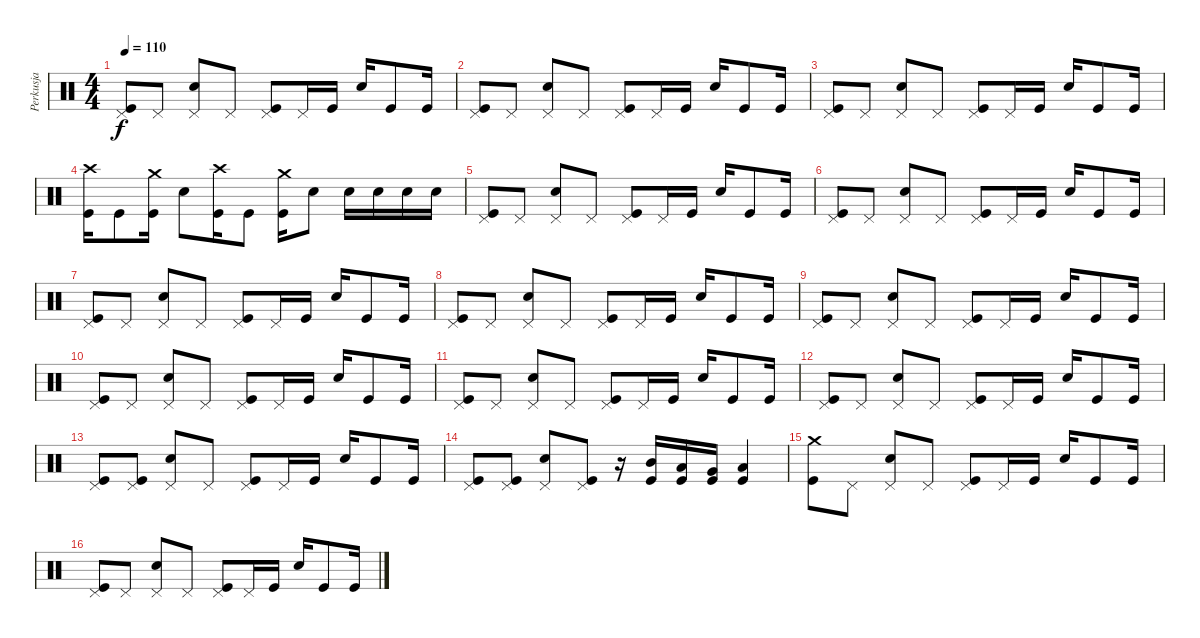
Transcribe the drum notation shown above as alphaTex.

\track ("Perkusja" "Perkusja") {instrument percussion}
\staff {score}
\articulation defaults
\ts (4 4)
\tempo 110
\clef neutral
\ks c
("Pedal Hi-Hat (hit)" "Kick (hit)").8{dy f} "Pedal Hi-Hat (hit)".8 ("Pedal Hi-Hat (hit)" "Snare (hit) 2").8 "Pedal Hi-Hat (hit)".8 ("Pedal Hi-Hat (hit)" "Kick (hit)").8 "Pedal Hi-Hat (hit)".16 "Kick (hit)".16 "Snare (hit) 2".16 "Kick (hit)".8 "Kick (hit)".16 |
("Pedal Hi-Hat (hit)" "Kick (hit)").8 "Pedal Hi-Hat (hit)".8 ("Pedal Hi-Hat (hit)" "Snare (hit) 2").8 "Pedal Hi-Hat (hit)".8 ("Pedal Hi-Hat (hit)" "Kick (hit)").8 "Pedal Hi-Hat (hit)".16 "Kick (hit)".16 "Snare (hit) 2".16 "Kick (hit)".8 "Kick (hit)".16 |
("Pedal Hi-Hat (hit)" "Kick (hit)").8 "Pedal Hi-Hat (hit)".8 ("Pedal Hi-Hat (hit)" "Snare (hit) 2").8 "Pedal Hi-Hat (hit)".8 ("Pedal Hi-Hat (hit)" "Kick (hit)").8 "Pedal Hi-Hat (hit)".16 "Kick (hit)".16 "Snare (hit) 2".16 "Kick (hit)".8 "Kick (hit)".16 |
("Crash high (hit)" "Kick (hit)").16 "Kick (hit)".8 ("Crash medium (hit)" "Kick (hit)").16 "Snare (hit) 2".8 ("Crash high (hit)" "Kick (hit)").16 "Kick (hit)".8 ("Crash medium (hit)" "Kick (hit)").16 "Snare (hit) 2".8 "Snare (hit) 2".16 "Snare (hit) 2".16 "Snare (hit) 2".16 "Snare (hit) 2".16 |
("Pedal Hi-Hat (hit)" "Kick (hit)").8 "Pedal Hi-Hat (hit)".8 ("Pedal Hi-Hat (hit)" "Snare (hit) 2").8 "Pedal Hi-Hat (hit)".8 ("Pedal Hi-Hat (hit)" "Kick (hit)").8 "Pedal Hi-Hat (hit)".16 "Kick (hit)".16 "Snare (hit) 2".16 "Kick (hit)".8 "Kick (hit)".16 |
("Pedal Hi-Hat (hit)" "Kick (hit)").8 "Pedal Hi-Hat (hit)".8 ("Pedal Hi-Hat (hit)" "Snare (hit) 2").8 "Pedal Hi-Hat (hit)".8 ("Pedal Hi-Hat (hit)" "Kick (hit)").8 "Pedal Hi-Hat (hit)".16 "Kick (hit)".16 "Snare (hit) 2".16 "Kick (hit)".8 "Kick (hit)".16 |
("Pedal Hi-Hat (hit)" "Kick (hit)").8 "Pedal Hi-Hat (hit)".8 ("Pedal Hi-Hat (hit)" "Snare (hit) 2").8 "Pedal Hi-Hat (hit)".8 ("Pedal Hi-Hat (hit)" "Kick (hit)").8 "Pedal Hi-Hat (hit)".16 "Kick (hit)".16 "Snare (hit) 2".16 "Kick (hit)".8 "Kick (hit)".16 |
("Pedal Hi-Hat (hit)" "Kick (hit)").8 "Pedal Hi-Hat (hit)".8 ("Pedal Hi-Hat (hit)" "Snare (hit) 2").8 "Pedal Hi-Hat (hit)".8 ("Pedal Hi-Hat (hit)" "Kick (hit)").8 "Pedal Hi-Hat (hit)".16 "Kick (hit)".16 "Snare (hit) 2".16 "Kick (hit)".8 "Kick (hit)".16 |
("Pedal Hi-Hat (hit)" "Kick (hit)").8 "Pedal Hi-Hat (hit)".8 ("Pedal Hi-Hat (hit)" "Snare (hit) 2").8 "Pedal Hi-Hat (hit)".8 ("Pedal Hi-Hat (hit)" "Kick (hit)").8 "Pedal Hi-Hat (hit)".16 "Kick (hit)".16 "Snare (hit) 2".16 "Kick (hit)".8 "Kick (hit)".16 |
("Pedal Hi-Hat (hit)" "Kick (hit)").8 "Pedal Hi-Hat (hit)".8 ("Pedal Hi-Hat (hit)" "Snare (hit) 2").8 "Pedal Hi-Hat (hit)".8 ("Pedal Hi-Hat (hit)" "Kick (hit)").8 "Pedal Hi-Hat (hit)".16 "Kick (hit)".16 "Snare (hit) 2".16 "Kick (hit)".8 "Kick (hit)".16 |
("Pedal Hi-Hat (hit)" "Kick (hit)").8 "Pedal Hi-Hat (hit)".8 ("Pedal Hi-Hat (hit)" "Snare (hit) 2").8 "Pedal Hi-Hat (hit)".8 ("Pedal Hi-Hat (hit)" "Kick (hit)").8 "Pedal Hi-Hat (hit)".16 "Kick (hit)".16 "Snare (hit) 2".16 "Kick (hit)".8 "Kick (hit)".16 |
("Pedal Hi-Hat (hit)" "Kick (hit)").8 "Pedal Hi-Hat (hit)".8 ("Pedal Hi-Hat (hit)" "Snare (hit) 2").8 "Pedal Hi-Hat (hit)".8 ("Pedal Hi-Hat (hit)" "Kick (hit)").8 "Pedal Hi-Hat (hit)".16 "Kick (hit)".16 "Snare (hit) 2".16 "Kick (hit)".8 "Kick (hit)".16 |
("Pedal Hi-Hat (hit)" "Kick (hit)").8 ("Pedal Hi-Hat (hit)" "Kick (hit)").8 ("Pedal Hi-Hat (hit)" "Snare (hit) 2").8 "Pedal Hi-Hat (hit)".8 ("Pedal Hi-Hat (hit)" "Kick (hit)").8 "Pedal Hi-Hat (hit)".16 "Kick (hit)".16 "Snare (hit) 2".16 "Kick (hit)".8 "Kick (hit)".16 |
("Pedal Hi-Hat (hit)" "Kick (hit)").8 ("Pedal Hi-Hat (hit)" "Kick (hit)").8 ("Pedal Hi-Hat (hit)" "Snare (hit) 2").8 ("Pedal Hi-Hat (hit)" "Kick (hit)").8 r.16 ("Mid Tom (hit)" "Kick (hit)").16 ("Low Tom (hit)" "Kick (hit)").16 ("Very Low Tom (hit)" "Kick (hit)").16 ("Low Floor Tom (hit)" "Kick (hit)").4 |
("Crash medium (hit)" "Kick (hit)").8 "Pedal Hi-Hat (hit)".8 ("Pedal Hi-Hat (hit)" "Snare (hit) 2").8 "Pedal Hi-Hat (hit)".8 ("Pedal Hi-Hat (hit)" "Kick (hit)").8 "Pedal Hi-Hat (hit)".16 "Kick (hit)".16 "Snare (hit) 2".16 "Kick (hit)".8 "Kick (hit)".16 |
("Pedal Hi-Hat (hit)" "Kick (hit)").8 "Pedal Hi-Hat (hit)".8 ("Pedal Hi-Hat (hit)" "Snare (hit) 2").8 "Pedal Hi-Hat (hit)".8 ("Pedal Hi-Hat (hit)" "Kick (hit)").8 "Pedal Hi-Hat (hit)".16 "Kick (hit)".16 "Snare (hit) 2".16 "Kick (hit)".8 "Kick (hit)".16
